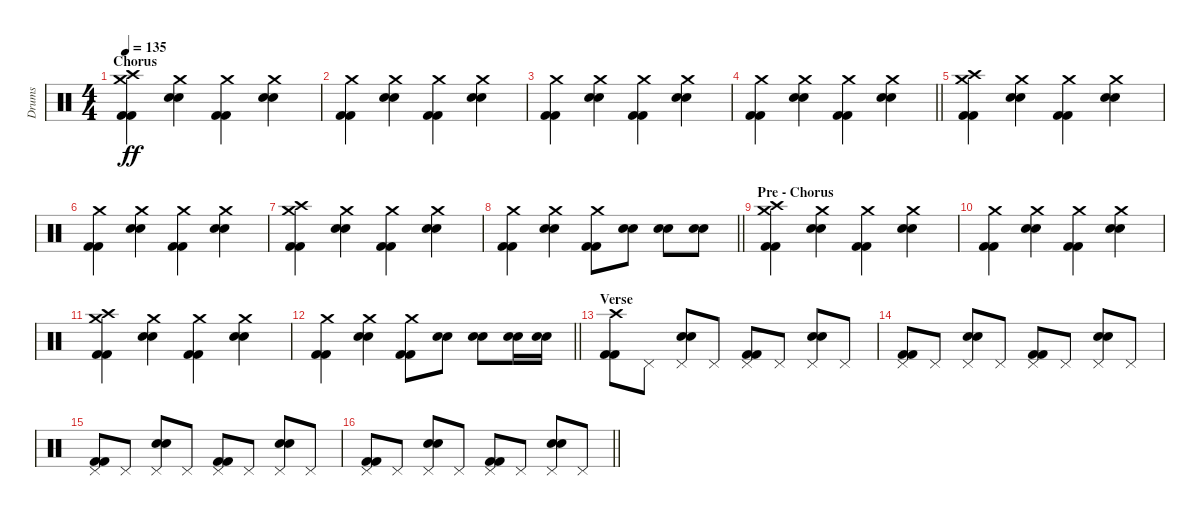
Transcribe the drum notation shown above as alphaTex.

\track ("Drums" "Drums") {instrument percussion}
\staff {score}
\articulation defaults
\ts (4 4)
\section ("" "Chorus")
\tempo 135
\clef neutral
\ks c
("Crash high (hit)" "Crash medium (hit)" "Kick (hit) 2" "Kick (hit) 2").4{dy ff} ("Crash medium (hit)" "Electric Snare (hit)" "Electric Snare (hit)").4 ("Crash medium (hit)" "Kick (hit) 2" "Kick (hit) 2").4 ("Crash medium (hit)" "Electric Snare (hit)" "Electric Snare (hit)").4 |
("Crash medium (hit)" "Kick (hit) 2" "Kick (hit) 2").4 ("Crash medium (hit)" "Electric Snare (hit)" "Electric Snare (hit)").4 ("Crash medium (hit)" "Kick (hit) 2" "Kick (hit) 2").4 ("Crash medium (hit)" "Electric Snare (hit)" "Electric Snare (hit)").4 |
("Crash medium (hit)" "Kick (hit) 2" "Kick (hit) 2").4 ("Crash medium (hit)" "Electric Snare (hit)" "Electric Snare (hit)").4 ("Crash medium (hit)" "Kick (hit) 2" "Kick (hit) 2").4 ("Crash medium (hit)" "Electric Snare (hit)" "Electric Snare (hit)").4 |
\barLineRight lightlight
("Crash medium (hit)" "Kick (hit) 2" "Kick (hit) 2").4 ("Crash medium (hit)" "Electric Snare (hit)" "Electric Snare (hit)").4 ("Crash medium (hit)" "Kick (hit) 2" "Kick (hit) 2").4 ("Crash medium (hit)" "Electric Snare (hit)" "Electric Snare (hit)").4 |
("Crash high (hit)" "Crash medium (hit)" "Kick (hit) 2" "Kick (hit) 2").4 ("Crash medium (hit)" "Electric Snare (hit)" "Electric Snare (hit)").4 ("Crash medium (hit)" "Kick (hit) 2" "Kick (hit) 2").4 ("Crash medium (hit)" "Electric Snare (hit)" "Electric Snare (hit)").4 |
("Crash medium (hit)" "Kick (hit) 2" "Kick (hit) 2").4 ("Crash medium (hit)" "Electric Snare (hit)" "Electric Snare (hit)").4 ("Crash medium (hit)" "Kick (hit) 2" "Kick (hit) 2").4 ("Crash medium (hit)" "Electric Snare (hit)" "Electric Snare (hit)").4 |
("Crash high (hit)" "Crash medium (hit)" "Kick (hit) 2" "Kick (hit) 2").4 ("Crash medium (hit)" "Electric Snare (hit)" "Electric Snare (hit)").4 ("Crash medium (hit)" "Kick (hit) 2" "Kick (hit) 2").4 ("Crash medium (hit)" "Electric Snare (hit)" "Electric Snare (hit)").4 |
\barLineRight lightlight
("Crash medium (hit)" "Kick (hit) 2" "Kick (hit) 2").4 ("Crash medium (hit)" "Electric Snare (hit)" "Electric Snare (hit)").4 ("Crash medium (hit)" "Kick (hit) 2" "Kick (hit) 2").8 ("Electric Snare (hit)" "Electric Snare (hit)").8 ("Electric Snare (hit)" "Electric Snare (hit)").8 ("Electric Snare (hit)" "Electric Snare (hit)").8 |
\section ("" "Pre - Chorus")
("Crash high (hit)" "Crash medium (hit)" "Kick (hit) 2" "Kick (hit) 2").4 ("Crash medium (hit)" "Electric Snare (hit)" "Electric Snare (hit)").4 ("Crash medium (hit)" "Kick (hit) 2" "Kick (hit) 2").4 ("Crash medium (hit)" "Electric Snare (hit)" "Electric Snare (hit)").4 |
("Crash medium (hit)" "Kick (hit) 2" "Kick (hit) 2").4 ("Crash medium (hit)" "Electric Snare (hit)" "Electric Snare (hit)").4 ("Crash medium (hit)" "Kick (hit) 2" "Kick (hit) 2").4 ("Crash medium (hit)" "Electric Snare (hit)" "Electric Snare (hit)").4 |
("Crash high (hit)" "Crash medium (hit)" "Kick (hit) 2" "Kick (hit) 2").4 ("Crash medium (hit)" "Electric Snare (hit)" "Electric Snare (hit)").4 ("Crash medium (hit)" "Kick (hit) 2" "Kick (hit) 2").4 ("Crash medium (hit)" "Electric Snare (hit)" "Electric Snare (hit)").4 |
\barLineRight lightlight
("Crash medium (hit)" "Kick (hit) 2" "Kick (hit) 2").4 ("Crash medium (hit)" "Electric Snare (hit)" "Electric Snare (hit)").4 ("Crash medium (hit)" "Kick (hit) 2" "Kick (hit) 2").8 ("Electric Snare (hit)" "Electric Snare (hit)").8 ("Electric Snare (hit)" "Electric Snare (hit)").8 ("Electric Snare (hit)" "Electric Snare (hit)").16 ("Electric Snare (hit)" "Electric Snare (hit)").16 |
\section ("" "Verse ")
("Crash high (hit)" "Kick (hit) 2" "Kick (hit) 2").8 "Pedal Hi-Hat (hit)".8 ("Pedal Hi-Hat (hit)" "Electric Snare (hit)" "Electric Snare (hit)").8 "Pedal Hi-Hat (hit)".8 ("Pedal Hi-Hat (hit)" "Kick (hit) 2" "Kick (hit) 2").8 "Pedal Hi-Hat (hit)".8 ("Pedal Hi-Hat (hit)" "Electric Snare (hit)" "Electric Snare (hit)").8 "Pedal Hi-Hat (hit)".8 |
("Pedal Hi-Hat (hit)" "Kick (hit) 2" "Kick (hit) 2").8 "Pedal Hi-Hat (hit)".8 ("Pedal Hi-Hat (hit)" "Electric Snare (hit)" "Electric Snare (hit)").8 "Pedal Hi-Hat (hit)".8 ("Pedal Hi-Hat (hit)" "Kick (hit) 2" "Kick (hit) 2").8 "Pedal Hi-Hat (hit)".8 ("Pedal Hi-Hat (hit)" "Electric Snare (hit)" "Electric Snare (hit)").8 "Pedal Hi-Hat (hit)".8 |
("Pedal Hi-Hat (hit)" "Kick (hit) 2" "Kick (hit) 2").8 "Pedal Hi-Hat (hit)".8 ("Pedal Hi-Hat (hit)" "Electric Snare (hit)" "Electric Snare (hit)").8 "Pedal Hi-Hat (hit)".8 ("Pedal Hi-Hat (hit)" "Kick (hit) 2" "Kick (hit) 2").8 "Pedal Hi-Hat (hit)".8 ("Pedal Hi-Hat (hit)" "Electric Snare (hit)" "Electric Snare (hit)").8 "Pedal Hi-Hat (hit)".8 |
\barLineRight lightlight
("Pedal Hi-Hat (hit)" "Kick (hit) 2" "Kick (hit) 2").8 "Pedal Hi-Hat (hit)".8 ("Pedal Hi-Hat (hit)" "Electric Snare (hit)" "Electric Snare (hit)").8 "Pedal Hi-Hat (hit)".8 ("Pedal Hi-Hat (hit)" "Kick (hit) 2" "Kick (hit) 2").8 "Pedal Hi-Hat (hit)".8 ("Pedal Hi-Hat (hit)" "Electric Snare (hit)" "Electric Snare (hit)").8 "Pedal Hi-Hat (hit)".8
